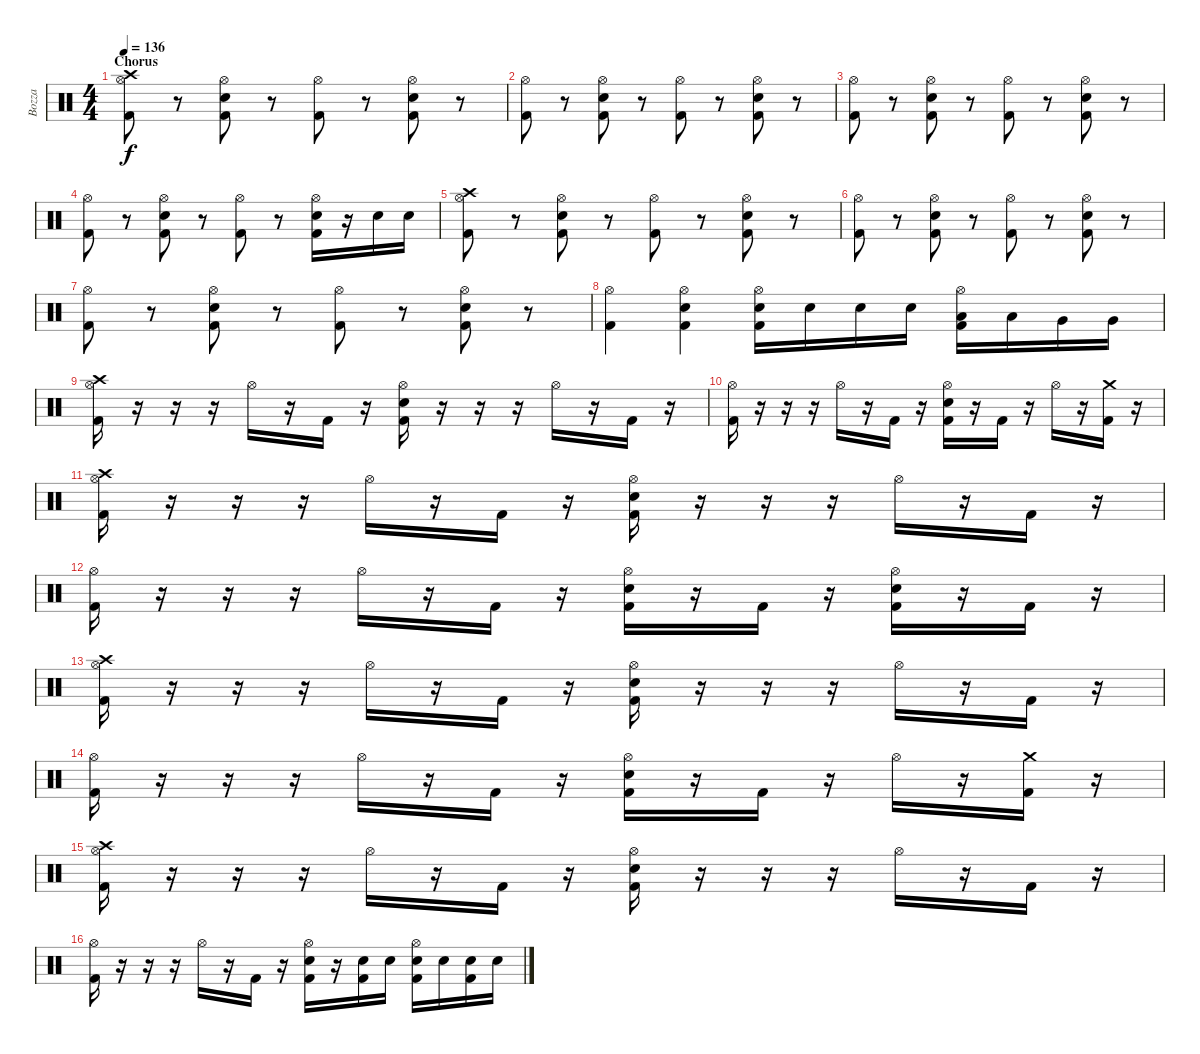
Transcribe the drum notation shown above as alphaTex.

\track ("Bozza" "Bozza") {instrument percussion}
\staff {score}
\articulation defaults
\ts (4 4)
\section ("" "Chorus")
\tempo 136
\clef neutral
\ks c
("Crash high (hit)" "Hi-Hat (open)" "Kick (hit) 2").8{dy f} r.8 ("Hi-Hat (open)" "Snare (hit) 2" "Kick (hit) 2").8 r.8 ("Hi-Hat (open)" "Kick (hit) 2").8 r.8 ("Hi-Hat (open)" "Snare (hit) 2" "Kick (hit) 2").8 r.8 |
("Hi-Hat (open)" "Kick (hit) 2").8 r.8 ("Hi-Hat (open)" "Snare (hit) 2" "Kick (hit) 2").8 r.8 ("Hi-Hat (open)" "Kick (hit) 2").8 r.8 ("Hi-Hat (open)" "Snare (hit) 2" "Kick (hit) 2").8 r.8 |
("Hi-Hat (open)" "Kick (hit) 2").8 r.8 ("Hi-Hat (open)" "Snare (hit) 2" "Kick (hit) 2").8 r.8 ("Hi-Hat (open)" "Kick (hit) 2").8 r.8 ("Hi-Hat (open)" "Snare (hit) 2" "Kick (hit) 2").8 r.8 |
("Hi-Hat (open)" "Kick (hit) 2").8 r.8 ("Hi-Hat (open)" "Snare (hit) 2" "Kick (hit) 2").8 r.8 ("Hi-Hat (open)" "Kick (hit) 2").8 r.8 ("Hi-Hat (open)" "Snare (hit) 2" "Kick (hit) 2").16 r.16 "Snare (hit) 2".16 "Snare (hit) 2".16 |
("Crash high (hit)" "Hi-Hat (open)" "Kick (hit) 2").8 r.8 ("Hi-Hat (open)" "Snare (hit) 2" "Kick (hit) 2").8 r.8 ("Hi-Hat (open)" "Kick (hit) 2").8 r.8 ("Hi-Hat (open)" "Snare (hit) 2" "Kick (hit) 2").8 r.8 |
("Hi-Hat (open)" "Kick (hit) 2").8 r.8 ("Hi-Hat (open)" "Snare (hit) 2" "Kick (hit) 2").8 r.8 ("Hi-Hat (open)" "Kick (hit) 2").8 r.8 ("Hi-Hat (open)" "Snare (hit) 2" "Kick (hit) 2").8 r.8 |
("Hi-Hat (open)" "Kick (hit) 2").8 r.8 ("Hi-Hat (open)" "Snare (hit) 2" "Kick (hit) 2").8 r.8 ("Hi-Hat (open)" "Kick (hit) 2").8 r.8 ("Hi-Hat (open)" "Snare (hit) 2" "Kick (hit) 2").8 r.8 |
("Hi-Hat (open)" "Kick (hit) 2").4 ("Hi-Hat (open)" "Snare (hit) 2" "Kick (hit) 2").4 ("Hi-Hat (open)" "Snare (hit) 2" "Kick (hit) 2").16 "Snare (hit) 2".16 "Snare (hit) 2".16 "Snare (hit) 2".16 ("Hi-Hat (open)" "Low Tom (hit)" "Kick (hit) 2").16 "Low Tom (hit)".16 "Very Low Tom (hit)".16 "Very Low Tom (hit)".16 |
("Crash high (hit)" "Hi-Hat (open)" "Kick (hit) 2").16 r.16 r.16 r.16 "Hi-Hat (open)".16 r.16 "Kick (hit) 2".16 r.16 ("Hi-Hat (open)" "Snare (hit) 2" "Kick (hit) 2").16 r.16 r.16 r.16 "Hi-Hat (open)".16 r.16 "Kick (hit) 2".16 r.16 |
("Hi-Hat (open)" "Kick (hit) 2").16 r.16 r.16 r.16 "Hi-Hat (open)".16 r.16 "Kick (hit) 2".16 r.16 ("Hi-Hat (open)" "Snare (hit) 2" "Kick (hit) 2").16 r.16 "Kick (hit) 2".16 r.16 "Hi-Hat (open)".16 r.16 ("Crash medium (hit)" "Kick (hit) 2").16 r.16 |
("Crash high (hit)" "Hi-Hat (open)" "Kick (hit) 2").16 r.16 r.16 r.16 "Hi-Hat (open)".16 r.16 "Kick (hit) 2".16 r.16 ("Hi-Hat (open)" "Snare (hit) 2" "Kick (hit) 2").16 r.16 r.16 r.16 "Hi-Hat (open)".16 r.16 "Kick (hit) 2".16 r.16 |
("Hi-Hat (open)" "Kick (hit) 2").16 r.16 r.16 r.16 "Hi-Hat (open)".16 r.16 "Kick (hit) 2".16 r.16 ("Hi-Hat (open)" "Snare (hit) 2" "Kick (hit) 2").16 r.16 "Kick (hit) 2".16 r.16 ("Hi-Hat (open)" "Snare (hit) 2" "Kick (hit) 2").16 r.16 "Kick (hit) 2".16 r.16 |
("Crash high (hit)" "Hi-Hat (open)" "Kick (hit) 2").16 r.16 r.16 r.16 "Hi-Hat (open)".16 r.16 "Kick (hit) 2".16 r.16 ("Hi-Hat (open)" "Snare (hit) 2" "Kick (hit) 2").16 r.16 r.16 r.16 "Hi-Hat (open)".16 r.16 "Kick (hit) 2".16 r.16 |
("Hi-Hat (open)" "Kick (hit) 2").16 r.16 r.16 r.16 "Hi-Hat (open)".16 r.16 "Kick (hit) 2".16 r.16 ("Hi-Hat (open)" "Snare (hit) 2" "Kick (hit) 2").16 r.16 "Kick (hit) 2".16 r.16 "Hi-Hat (open)".16 r.16 ("Crash medium (hit)" "Kick (hit) 2").16 r.16 |
("Crash high (hit)" "Hi-Hat (open)" "Kick (hit) 2").16 r.16 r.16 r.16 "Hi-Hat (open)".16 r.16 "Kick (hit) 2".16 r.16 ("Hi-Hat (open)" "Snare (hit) 2" "Kick (hit) 2").16 r.16 r.16 r.16 "Hi-Hat (open)".16 r.16 "Kick (hit) 2".16 r.16 |
("Hi-Hat (open)" "Kick (hit) 2").16 r.16 r.16 r.16 "Hi-Hat (open)".16 r.16 "Kick (hit) 2".16 r.16 ("Hi-Hat (open)" "Snare (hit) 2" "Kick (hit) 2").16 r.16 ("Snare (hit) 2" "Kick (hit) 2").16 "Snare (hit) 2".16 ("Hi-Hat (open)" "Snare (hit) 2" "Kick (hit) 2").16 "Snare (hit) 2".16 ("Snare (hit) 2" "Kick (hit) 2").16 "Snare (hit) 2".16
